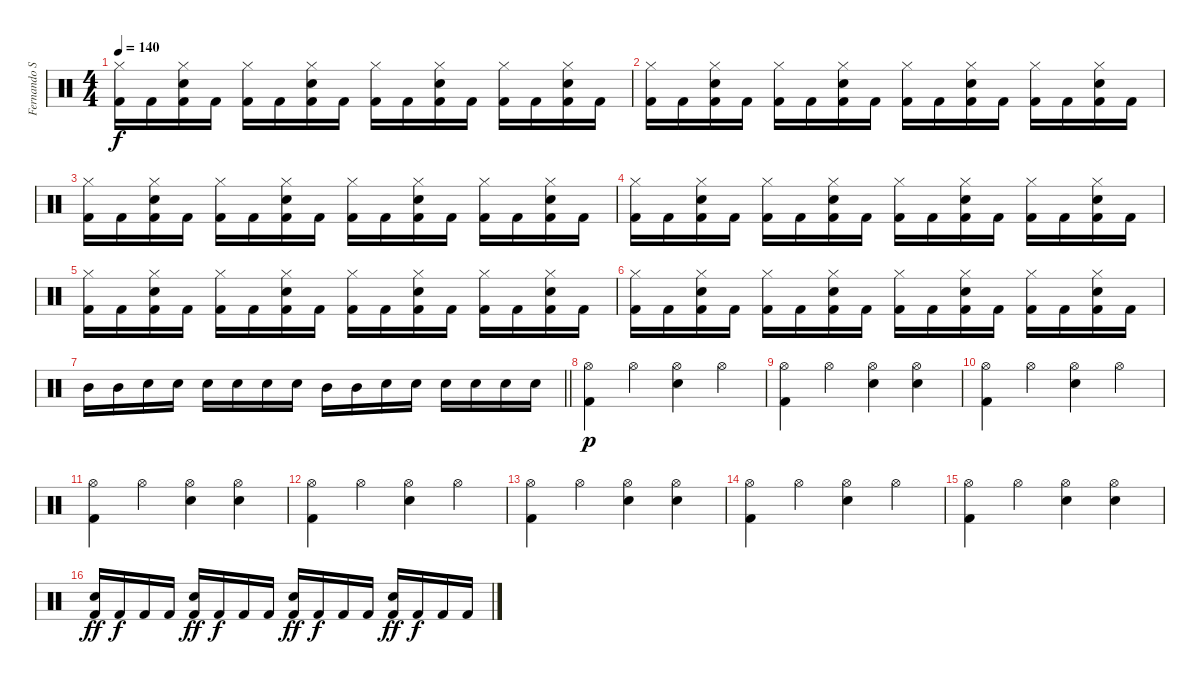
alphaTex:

\track ("Fernando Scarcella" "Fernando S") {instrument percussion}
\staff {score}
\articulation defaults
\ts (4 4)
\tempo 140
\clef neutral
\ks c
("Hi-Hat (closed)" "Kick (hit) 2").16{dy f} "Kick (hit) 2".16 ("Hi-Hat (closed)" "Snare (hit) 2" "Kick (hit) 2").16 "Kick (hit) 2".16 ("Hi-Hat (closed)" "Kick (hit) 2").16 "Kick (hit) 2".16 ("Hi-Hat (closed)" "Snare (hit) 2" "Kick (hit) 2").16 "Kick (hit) 2".16 ("Hi-Hat (closed)" "Kick (hit) 2").16 "Kick (hit) 2".16 ("Hi-Hat (closed)" "Snare (hit) 2" "Kick (hit) 2").16 "Kick (hit) 2".16 ("Hi-Hat (closed)" "Kick (hit) 2").16 "Kick (hit) 2".16 ("Hi-Hat (closed)" "Snare (hit) 2" "Kick (hit) 2").16 "Kick (hit) 2".16 |
("Hi-Hat (closed)" "Kick (hit) 2").16 "Kick (hit) 2".16 ("Hi-Hat (closed)" "Snare (hit) 2" "Kick (hit) 2").16 "Kick (hit) 2".16 ("Hi-Hat (closed)" "Kick (hit) 2").16 "Kick (hit) 2".16 ("Hi-Hat (closed)" "Snare (hit) 2" "Kick (hit) 2").16 "Kick (hit) 2".16 ("Hi-Hat (closed)" "Kick (hit) 2").16 "Kick (hit) 2".16 ("Hi-Hat (closed)" "Snare (hit) 2" "Kick (hit) 2").16 "Kick (hit) 2".16 ("Hi-Hat (closed)" "Kick (hit) 2").16 "Kick (hit) 2".16 ("Hi-Hat (closed)" "Snare (hit) 2" "Kick (hit) 2").16 "Kick (hit) 2".16 |
("Hi-Hat (closed)" "Kick (hit) 2").16 "Kick (hit) 2".16 ("Hi-Hat (closed)" "Snare (hit) 2" "Kick (hit) 2").16 "Kick (hit) 2".16 ("Hi-Hat (closed)" "Kick (hit) 2").16 "Kick (hit) 2".16 ("Hi-Hat (closed)" "Snare (hit) 2" "Kick (hit) 2").16 "Kick (hit) 2".16 ("Hi-Hat (closed)" "Kick (hit) 2").16 "Kick (hit) 2".16 ("Hi-Hat (closed)" "Snare (hit) 2" "Kick (hit) 2").16 "Kick (hit) 2".16 ("Hi-Hat (closed)" "Kick (hit) 2").16 "Kick (hit) 2".16 ("Hi-Hat (closed)" "Snare (hit) 2" "Kick (hit) 2").16 "Kick (hit) 2".16 |
("Hi-Hat (closed)" "Kick (hit) 2").16 "Kick (hit) 2".16 ("Hi-Hat (closed)" "Snare (hit) 2" "Kick (hit) 2").16 "Kick (hit) 2".16 ("Hi-Hat (closed)" "Kick (hit) 2").16 "Kick (hit) 2".16 ("Hi-Hat (closed)" "Snare (hit) 2" "Kick (hit) 2").16 "Kick (hit) 2".16 ("Hi-Hat (closed)" "Kick (hit) 2").16 "Kick (hit) 2".16 ("Hi-Hat (closed)" "Snare (hit) 2" "Kick (hit) 2").16 "Kick (hit) 2".16 ("Hi-Hat (closed)" "Kick (hit) 2").16 "Kick (hit) 2".16 ("Hi-Hat (closed)" "Snare (hit) 2" "Kick (hit) 2").16 "Kick (hit) 2".16 |
("Hi-Hat (closed)" "Kick (hit) 2").16 "Kick (hit) 2".16 ("Hi-Hat (closed)" "Snare (hit) 2" "Kick (hit) 2").16 "Kick (hit) 2".16 ("Hi-Hat (closed)" "Kick (hit) 2").16 "Kick (hit) 2".16 ("Hi-Hat (closed)" "Snare (hit) 2" "Kick (hit) 2").16 "Kick (hit) 2".16 ("Hi-Hat (closed)" "Kick (hit) 2").16 "Kick (hit) 2".16 ("Hi-Hat (closed)" "Snare (hit) 2" "Kick (hit) 2").16 "Kick (hit) 2".16 ("Hi-Hat (closed)" "Kick (hit) 2").16 "Kick (hit) 2".16 ("Hi-Hat (closed)" "Snare (hit) 2" "Kick (hit) 2").16 "Kick (hit) 2".16 |
("Hi-Hat (closed)" "Kick (hit) 2").16 "Kick (hit) 2".16 ("Hi-Hat (closed)" "Snare (hit) 2" "Kick (hit) 2").16 "Kick (hit) 2".16 ("Hi-Hat (closed)" "Kick (hit) 2").16 "Kick (hit) 2".16 ("Hi-Hat (closed)" "Snare (hit) 2" "Kick (hit) 2").16 "Kick (hit) 2".16 ("Hi-Hat (closed)" "Kick (hit) 2").16 "Kick (hit) 2".16 ("Hi-Hat (closed)" "Snare (hit) 2" "Kick (hit) 2").16 "Kick (hit) 2".16 ("Hi-Hat (closed)" "Kick (hit) 2").16 "Kick (hit) 2".16 ("Hi-Hat (closed)" "Snare (hit) 2" "Kick (hit) 2").16 "Kick (hit) 2".16 |
\barLineRight lightlight "Mid Tom (hit)".16 "Mid Tom (hit)".16 "Snare (hit) 2".16 "Snare (hit) 2".16 "Snare (hit) 2".16 "Snare (hit) 2".16 "Snare (hit) 2".16 "Snare (hit) 2".16 "Mid Tom (hit)".16 "Mid Tom (hit)".16 "Snare (hit) 2".16 "Snare (hit) 2".16 "Snare (hit) 2".16 "Snare (hit) 2".16 "Snare (hit) 2".16 "Snare (hit) 2".16
|
("Hi-Hat (open)" "Kick (hit) 2").4{dy p} "Hi-Hat (open)".4 ("Hi-Hat (open)" "Snare (hit) 2").4 "Hi-Hat (open)".4 |
("Hi-Hat (open)" "Kick (hit) 2").4 "Hi-Hat (open)".4 ("Hi-Hat (open)" "Snare (hit) 2").4 ("Hi-Hat (open)" "Snare (hit) 2").4 |
("Hi-Hat (open)" "Kick (hit) 2").4 "Hi-Hat (open)".4 ("Hi-Hat (open)" "Snare (hit) 2").4 "Hi-Hat (open)".4 |
("Hi-Hat (open)" "Kick (hit) 2").4 "Hi-Hat (open)".4 ("Hi-Hat (open)" "Snare (hit) 2").4 ("Hi-Hat (open)" "Snare (hit) 2").4 |
("Hi-Hat (open)" "Kick (hit) 2").4 "Hi-Hat (open)".4 ("Hi-Hat (open)" "Snare (hit) 2").4 "Hi-Hat (open)".4 |
("Hi-Hat (open)" "Kick (hit) 2").4 "Hi-Hat (open)".4 ("Hi-Hat (open)" "Snare (hit) 2").4 ("Hi-Hat (open)" "Snare (hit) 2").4 |
("Hi-Hat (open)" "Kick (hit) 2").4 "Hi-Hat (open)".4 ("Hi-Hat (open)" "Snare (hit) 2").4 "Hi-Hat (open)".4 |
("Hi-Hat (open)" "Kick (hit) 2").4 "Hi-Hat (open)".4 ("Hi-Hat (open)" "Snare (hit) 2").4 ("Hi-Hat (open)" "Snare (hit) 2").4 |
("Snare (hit) 2" "Kick (hit) 2").16{dy ff} "Kick (hit) 2".16{dy f} "Kick (hit) 2".16 "Kick (hit) 2".16 ("Snare (hit) 2" "Kick (hit) 2").16{dy ff} "Kick (hit) 2".16{dy f} "Kick (hit) 2".16 "Kick (hit) 2".16 ("Snare (hit) 2" "Kick (hit) 2").16{dy ff} "Kick (hit) 2".16{dy f} "Kick (hit) 2".16 "Kick (hit) 2".16 ("Snare (hit) 2" "Kick (hit) 2").16{dy ff} "Kick (hit) 2".16{dy f} "Kick (hit) 2".16 "Kick (hit) 2".16
